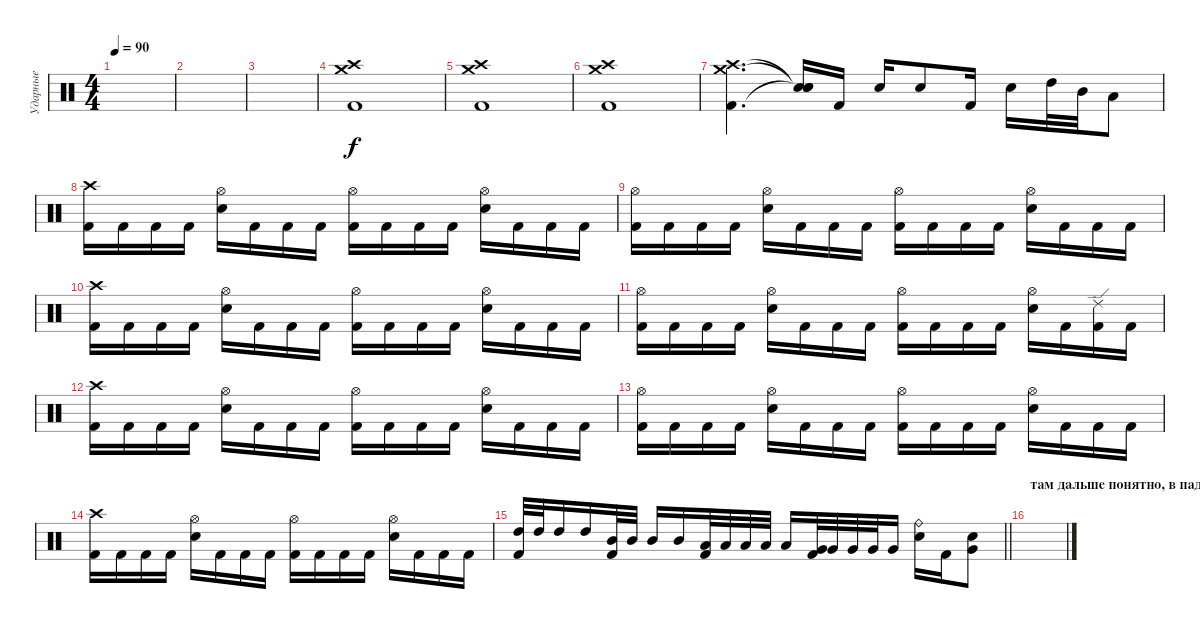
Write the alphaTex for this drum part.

\track ("Ударные" "Ударные") {instrument percussion}
\staff
\articulation defaults
\ts (4 4)
\tempo 90
\clef neutral
\ks c
|
|
|
("Crash high (hit)" "Crash medium (hit)" "Kick (hit) 2").1 |
("Crash high (hit)" "Crash medium (hit)" "Kick (hit) 2").1 |
("Crash high (hit)" "Crash medium (hit)" "Kick (hit) 2").1 |
("Crash high (hit)" "Crash medium (hit)" "Kick (hit) 2").4{d} ("Snare (hit)"{t} "Snare (hit)"{t} "Snare (hit)"{t}).16 "Kick (hit) 2".16 "Electric Snare (hit)".16 "Electric Snare (hit)".8 "Kick (hit) 2".16 "Electric Snare (hit)".16 "High Tom (hit)".32 "Mid Tom (hit)".32 "Low Tom (hit)".8 |
("Crash high (hit)" "Kick (hit) 2").16 "Kick (hit) 2".16 "Kick (hit) 2".16 "Kick (hit) 2".16 ("Hi-Hat (open)" "Electric Snare (hit)").16 "Kick (hit) 2".16 "Kick (hit) 2".16 "Kick (hit) 2".16 ("Hi-Hat (open)" "Kick (hit) 2").16 "Kick (hit) 2".16 "Kick (hit) 2".16 "Kick (hit) 2".16 ("Hi-Hat (open)" "Electric Snare (hit)").16 "Kick (hit) 2".16 "Kick (hit) 2".16 "Kick (hit) 2".16 |
("Hi-Hat (open)" "Kick (hit) 2").16 "Kick (hit) 2".16 "Kick (hit) 2".16 "Kick (hit) 2".16 ("Hi-Hat (open)" "Electric Snare (hit)").16 "Kick (hit) 2".16 "Kick (hit) 2".16 "Kick (hit) 2".16 ("Hi-Hat (open)" "Kick (hit) 2").16 "Kick (hit) 2".16 "Kick (hit) 2".16 "Kick (hit) 2".16 ("Hi-Hat (open)" "Electric Snare (hit)").16 "Kick (hit) 2".16 "Kick (hit) 2".16 "Kick (hit) 2".16 |
("Crash high (hit)" "Kick (hit) 2").16 "Kick (hit) 2".16 "Kick (hit) 2".16 "Kick (hit) 2".16 ("Hi-Hat (open)" "Electric Snare (hit)").16 "Kick (hit) 2".16 "Kick (hit) 2".16 "Kick (hit) 2".16 ("Hi-Hat (open)" "Kick (hit) 2").16 "Kick (hit) 2".16 "Kick (hit) 2".16 "Kick (hit) 2".16 ("Hi-Hat (open)" "Electric Snare (hit)").16 "Kick (hit) 2".16 "Kick (hit) 2".16 "Kick (hit) 2".16 |
("Hi-Hat (open)" "Kick (hit) 2").16 "Kick (hit) 2".16 "Kick (hit) 2".16 "Kick (hit) 2".16 ("Hi-Hat (open)" "Electric Snare (hit)").16 "Kick (hit) 2".16 "Kick (hit) 2".16 "Kick (hit) 2".16 ("Hi-Hat (open)" "Kick (hit) 2").16 "Kick (hit) 2".16 "Kick (hit) 2".16 "Kick (hit) 2".16 ("Hi-Hat (open)" "Electric Snare (hit)").16 "Kick (hit) 2".16 ("Ride (edge) 2" "Kick (hit) 2").16 "Kick (hit) 2".16 |
("Crash high (hit)" "Kick (hit) 2").16 "Kick (hit) 2".16 "Kick (hit) 2".16 "Kick (hit) 2".16 ("Hi-Hat (open)" "Electric Snare (hit)").16 "Kick (hit) 2".16 "Kick (hit) 2".16 "Kick (hit) 2".16 ("Hi-Hat (open)" "Kick (hit) 2").16 "Kick (hit) 2".16 "Kick (hit) 2".16 "Kick (hit) 2".16 ("Hi-Hat (open)" "Electric Snare (hit)").16 "Kick (hit) 2".16 "Kick (hit) 2".16 "Kick (hit) 2".16 |
("Hi-Hat (open)" "Kick (hit) 2").16 "Kick (hit) 2".16 "Kick (hit) 2".16 "Kick (hit) 2".16 ("Hi-Hat (open)" "Electric Snare (hit)").16 "Kick (hit) 2".16 "Kick (hit) 2".16 "Kick (hit) 2".16 ("Hi-Hat (open)" "Kick (hit) 2").16 "Kick (hit) 2".16 "Kick (hit) 2".16 "Kick (hit) 2".16 ("Hi-Hat (open)" "Electric Snare (hit)").16 "Kick (hit) 2".16 "Kick (hit) 2".16 "Kick (hit) 2".16 |
("Crash high (hit)" "Kick (hit) 2").16 "Kick (hit) 2".16 "Kick (hit) 2".16 "Kick (hit) 2".16 ("Hi-Hat (open)" "Electric Snare (hit)").16 "Kick (hit) 2".16 "Kick (hit) 2".16 "Kick (hit) 2".16 ("Hi-Hat (open)" "Kick (hit) 2").16 "Kick (hit) 2".16 "Kick (hit) 2".16 "Kick (hit) 2".16 ("Hi-Hat (open)" "Electric Snare (hit)").16 "Kick (hit) 2".16 "Kick (hit) 2".16 "Kick (hit) 2".16 |
\barLineRight lightlight
("High Tom (hit)" "Kick (hit) 2").32 "High Tom (hit)".32 "High Tom (hit)".16 "High Tom (hit)".16 ("Mid Tom (hit)" "Kick (hit) 2").32 "Mid Tom (hit)".32 "Mid Tom (hit)".16 "Mid Tom (hit)".16 ("Low Tom (hit)" "Kick (hit) 2").32 "Low Tom (hit)".32 "Low Tom (hit)".32 "Low Tom (hit)".32 "Low Tom (hit)".16 ("Very Low Tom (hit)" "Kick (hit) 2").32 "Very Low Tom (hit)".32 "Very Low Tom (hit)".32 "Very Low Tom (hit)".32 "Very Low Tom (hit)".16 ("Ride (bell)" "Electric Snare (hit)").16 "Kick (hit) 2".16 ("Electric Snare (hit)" "Very Low Tom (hit)").8 |
\section ("" "там дальше понятно, в падлу писать)))")
